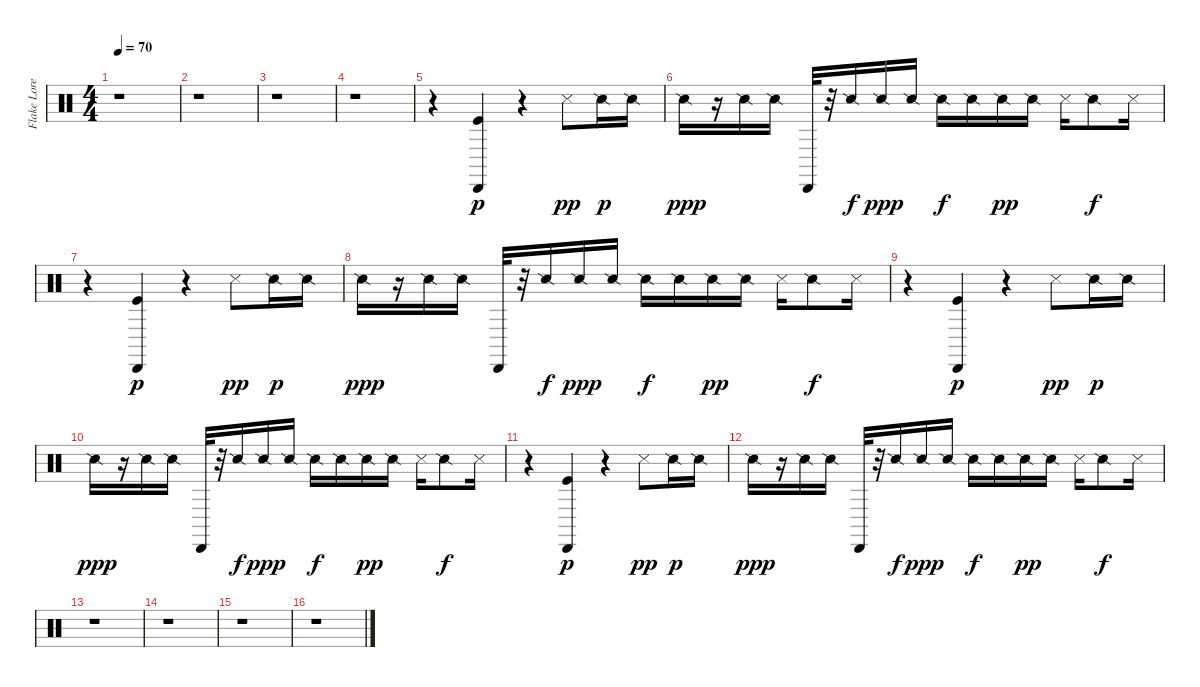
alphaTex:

\track ("Flake Lorenz" "Flake Lore") {instrument percussion}
\staff {score}
\articulation defaults
\ts (4 4)
\tempo 70
\clef neutral
\ks c
r.1{dy f} |
r.1 |
r.1 |
r.1 |
r.4 ("Kick (hit)" "Cabasa (hit)").4{dy p} r.4 "Metronome (hit)".8{dy pp} "Snare (side stick) 2".16{dy p} "Snare (side stick) 2".16 |
"Snare (side stick) 2".16{dy ppp} r.16 "Snare (side stick) 2".16 "Snare (side stick) 2".16 "Cabasa (hit)".32 r.32 "Snare (side stick) 2".16{dy f} "Snare (side stick) 2".16{dy ppp} "Snare (side stick) 2".16 "Snare (side stick) 2".16{dy f} "Snare (side stick) 2".16 "Snare (side stick) 2".16{dy pp} "Snare (side stick) 2".16 "Metronome (hit)".16 "Snare (side stick) 2".8{dy f} "Metronome (hit)".16 |
r.4 ("Kick (hit)" "Cabasa (hit)").4{dy p} r.4 "Metronome (hit)".8{dy pp} "Snare (side stick) 2".16{dy p} "Snare (side stick) 2".16 |
"Snare (side stick) 2".16{dy ppp} r.16 "Snare (side stick) 2".16 "Snare (side stick) 2".16 "Cabasa (hit)".32 r.32 "Snare (side stick) 2".16{dy f} "Snare (side stick) 2".16{dy ppp} "Snare (side stick) 2".16 "Snare (side stick) 2".16{dy f} "Snare (side stick) 2".16 "Snare (side stick) 2".16{dy pp} "Snare (side stick) 2".16 "Metronome (hit)".16 "Snare (side stick) 2".8{dy f} "Metronome (hit)".16 |
r.4 ("Kick (hit)" "Cabasa (hit)").4{dy p} r.4 "Metronome (hit)".8{dy pp} "Snare (side stick) 2".16{dy p} "Snare (side stick) 2".16 |
"Snare (side stick) 2".16{dy ppp} r.16 "Snare (side stick) 2".16 "Snare (side stick) 2".16 "Cabasa (hit)".32 r.32 "Snare (side stick) 2".16{dy f} "Snare (side stick) 2".16{dy ppp} "Snare (side stick) 2".16 "Snare (side stick) 2".16{dy f} "Snare (side stick) 2".16 "Snare (side stick) 2".16{dy pp} "Snare (side stick) 2".16 "Metronome (hit)".16 "Snare (side stick) 2".8{dy f} "Metronome (hit)".16 |
r.4 ("Kick (hit)" "Cabasa (hit)").4{dy p} r.4 "Metronome (hit)".8{dy pp} "Snare (side stick) 2".16{dy p} "Snare (side stick) 2".16 |
"Snare (side stick) 2".16{dy ppp} r.16 "Snare (side stick) 2".16 "Snare (side stick) 2".16 "Cabasa (hit)".32 r.32 "Snare (side stick) 2".16{dy f} "Snare (side stick) 2".16{dy ppp} "Snare (side stick) 2".16 "Snare (side stick) 2".16{dy f} "Snare (side stick) 2".16 "Snare (side stick) 2".16{dy pp} "Snare (side stick) 2".16 "Metronome (hit)".16 "Snare (side stick) 2".8{dy f} "Metronome (hit)".16 |
r.1 |
r.1 |
r.1 |
r.1
